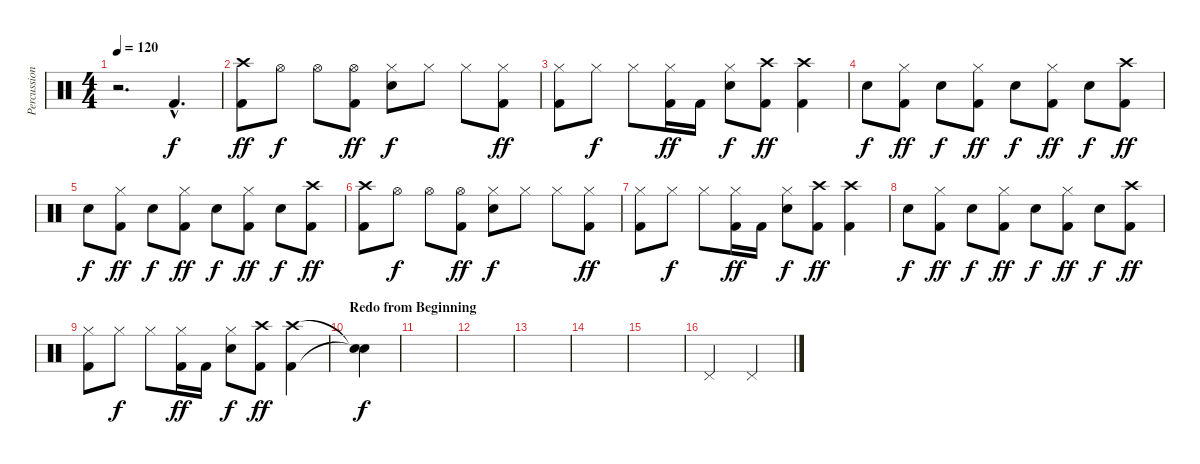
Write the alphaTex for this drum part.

\track ("Percussion" "Percussion") {instrument percussion}
\staff {score}
\articulation defaults
\ts (4 4)
\tempo 120
\clef neutral
\ks c
r.2{d dy f} "Kick (hit) 2"{hac}.4{d} |
("Crash high (hit)" "Kick (hit) 2").8{dy ff} "Hi-Hat (open)".8{dy f} "Hi-Hat (open)".8 ("Hi-Hat (open)" "Kick (hit) 2").8{dy ff} ("Hi-Hat (closed)" "Snare (hit) 2").8{dy f} "Hi-Hat (closed)".8 "Hi-Hat (closed)".8 ("Hi-Hat (closed)" "Kick (hit) 2").8{dy ff} |
("Hi-Hat (closed)" "Kick (hit) 2").8 "Hi-Hat (closed)".8{dy f} "Hi-Hat (closed)".8 ("Hi-Hat (closed)" "Kick (hit) 2").16{dy ff} "Kick (hit) 2".16 ("Hi-Hat (closed)" "Snare (hit) 2").8{dy f} ("Crash high (hit)" "Kick (hit) 2").8{dy ff} ("Crash high (hit)" "Kick (hit) 2").4 |
"Snare (hit) 2".8{dy f} ("Hi-Hat (closed)" "Kick (hit) 2").8{dy ff} "Snare (hit) 2".8{dy f} ("Hi-Hat (closed)" "Kick (hit) 2").8{dy ff} "Snare (hit) 2".8{dy f} ("Hi-Hat (closed)" "Kick (hit) 2").8{dy ff} "Snare (hit) 2".8{dy f} ("Crash high (hit)" "Kick (hit) 2").8{dy ff} |
"Snare (hit) 2".8{dy f} ("Hi-Hat (closed)" "Kick (hit) 2").8{dy ff} "Snare (hit) 2".8{dy f} ("Hi-Hat (closed)" "Kick (hit) 2").8{dy ff} "Snare (hit) 2".8{dy f} ("Hi-Hat (closed)" "Kick (hit) 2").8{dy ff} "Snare (hit) 2".8{dy f} ("Crash high (hit)" "Kick (hit) 2").8{dy ff} |
("Crash high (hit)" "Kick (hit) 2").8 "Hi-Hat (open)".8{dy f} "Hi-Hat (open)".8 ("Hi-Hat (open)" "Kick (hit) 2").8{dy ff} ("Hi-Hat (closed)" "Snare (hit) 2").8{dy f} "Hi-Hat (closed)".8 "Hi-Hat (closed)".8 ("Hi-Hat (closed)" "Kick (hit) 2").8{dy ff} |
("Hi-Hat (closed)" "Kick (hit) 2").8 "Hi-Hat (closed)".8{dy f} "Hi-Hat (closed)".8 ("Hi-Hat (closed)" "Kick (hit) 2").16{dy ff} "Kick (hit) 2".16 ("Hi-Hat (closed)" "Snare (hit) 2").8{dy f} ("Crash high (hit)" "Kick (hit) 2").8{dy ff} ("Crash high (hit)" "Kick (hit) 2").4 |
"Snare (hit) 2".8{dy f} ("Hi-Hat (closed)" "Kick (hit) 2").8{dy ff volume 0} "Snare (hit) 2".8{dy f} ("Hi-Hat (closed)" "Kick (hit) 2").8{dy ff} "Snare (hit) 2".8{dy f} ("Hi-Hat (closed)" "Kick (hit) 2").8{dy ff} "Snare (hit) 2".8{dy f} ("Crash high (hit)" "Kick (hit) 2").8{dy ff} |
("Hi-Hat (closed)" "Kick (hit) 2").8 "Hi-Hat (closed)".8{dy f} "Hi-Hat (closed)".8 ("Hi-Hat (closed)" "Kick (hit) 2").16{dy ff} "Kick (hit) 2".16 ("Hi-Hat (closed)" "Snare (hit) 2").8{dy f} ("Crash high (hit)" "Kick (hit) 2").8{dy ff} ("Crash high (hit)" "Kick (hit) 2").4 |
\section ("" "Redo from Beginning")
("Snare (hit)"{t} "Snare (hit)"{t}).4{dy f} |
|
|
|
|
|
"Pedal Hi-Hat (hit)".2 "Pedal Hi-Hat (hit)".2
